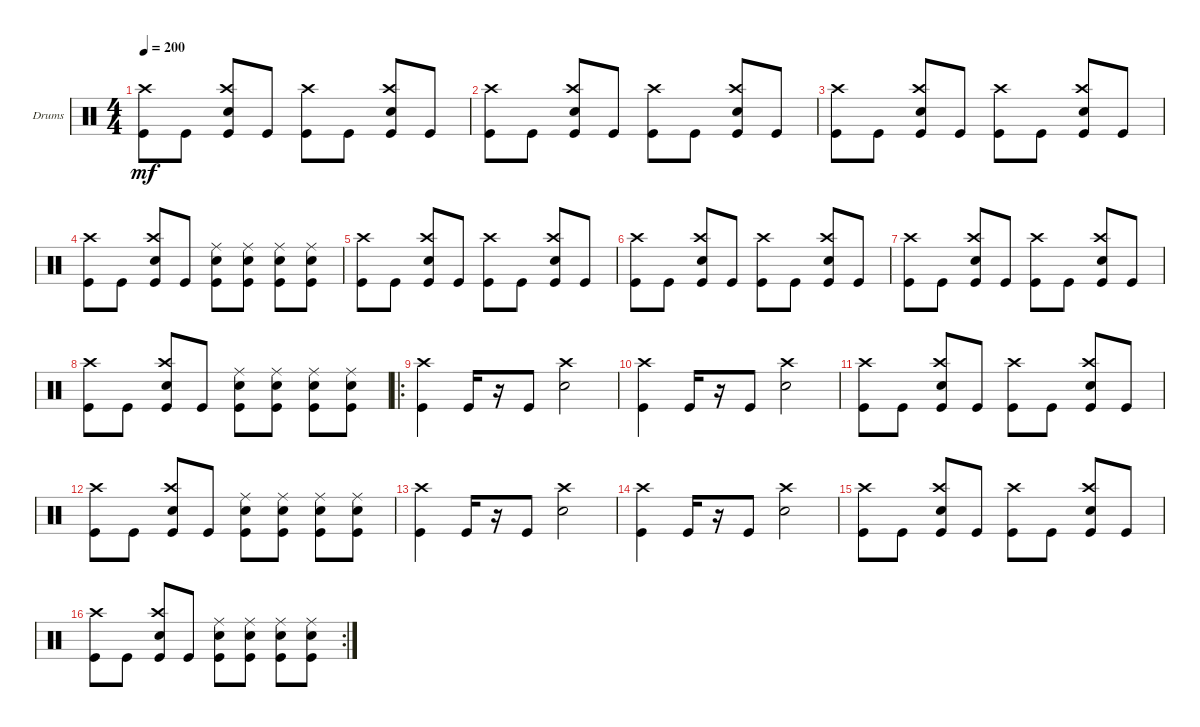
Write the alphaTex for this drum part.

\bracketExtendMode groupsimilarinstruments
\firstSystemTrackNameOrientation horizontal
\otherSystemsTrackNameOrientation horizontal
\track ("Drumkit" "Drums") {instrument percussion}
\staff {score}
\articulation defaults
\ts (4 4)
\tempo 200
\clef neutral
\ks c
("Kick (hit)" "Crash high (hit)").8{dy mf} "Kick (hit)".8 ("Kick (hit)" "Snare (hit) 2" "Crash high (hit)").8 "Kick (hit)".8 ("Kick (hit)" "Crash high (hit)").8 "Kick (hit)".8 ("Kick (hit)" "Snare (hit) 2" "Crash high (hit)").8 "Kick (hit)".8 |
("Kick (hit)" "Crash high (hit)").8 "Kick (hit)".8 ("Kick (hit)" "Snare (hit) 2" "Crash high (hit)").8 "Kick (hit)".8 ("Kick (hit)" "Crash high (hit)").8 "Kick (hit)".8 ("Kick (hit)" "Snare (hit) 2" "Crash high (hit)").8 "Kick (hit)".8 |
("Kick (hit)" "Crash high (hit)").8 "Kick (hit)".8 ("Kick (hit)" "Snare (hit) 2" "Crash high (hit)").8 "Kick (hit)".8 ("Kick (hit)" "Crash high (hit)").8 "Kick (hit)".8 ("Kick (hit)" "Snare (hit) 2" "Crash high (hit)").8 "Kick (hit)".8 |
("Kick (hit)" "Crash high (hit)").8 "Kick (hit)".8 ("Kick (hit)" "Snare (hit) 2" "Crash high (hit)").8 "Kick (hit)".8 ("Kick (hit)" "Snare (hit) 2" "Ride (middle)").8 ("Kick (hit)" "Snare (hit) 2" "Ride (middle)").8 ("Kick (hit)" "Snare (hit) 2" "Ride (middle)").8 ("Kick (hit)" "Snare (hit) 2" "Ride (middle)").8 |
("Kick (hit)" "Crash high (hit)").8 "Kick (hit)".8 ("Kick (hit)" "Snare (hit) 2" "Crash high (hit)").8 "Kick (hit)".8 ("Kick (hit)" "Crash high (hit)").8 "Kick (hit)".8 ("Kick (hit)" "Snare (hit) 2" "Crash high (hit)").8 "Kick (hit)".8 |
("Kick (hit)" "Crash high (hit)").8 "Kick (hit)".8 ("Kick (hit)" "Snare (hit) 2" "Crash high (hit)").8 "Kick (hit)".8 ("Kick (hit)" "Crash high (hit)").8 "Kick (hit)".8 ("Kick (hit)" "Snare (hit) 2" "Crash high (hit)").8 "Kick (hit)".8 |
("Kick (hit)" "Crash high (hit)").8 "Kick (hit)".8 ("Kick (hit)" "Snare (hit) 2" "Crash high (hit)").8 "Kick (hit)".8 ("Kick (hit)" "Crash high (hit)").8 "Kick (hit)".8 ("Kick (hit)" "Snare (hit) 2" "Crash high (hit)").8 "Kick (hit)".8 |
("Kick (hit)" "Crash high (hit)").8 "Kick (hit)".8 ("Kick (hit)" "Snare (hit) 2" "Crash high (hit)").8 "Kick (hit)".8 ("Kick (hit)" "Snare (hit) 2" "Ride (middle)").8 ("Kick (hit)" "Snare (hit) 2" "Ride (middle)").8 ("Kick (hit)" "Snare (hit) 2" "Ride (middle)").8 ("Kick (hit)" "Snare (hit) 2" "Ride (middle)").8 |
\ro
("Kick (hit)" "Crash high (hit)").4 "Kick (hit)".16 r.16 "Kick (hit)".8 ("Snare (hit) 2" "Crash high (hit)").2 |
("Kick (hit)" "Crash high (hit)").4 "Kick (hit)".16 r.16 "Kick (hit)".8 ("Snare (hit) 2" "Crash high (hit)").2 |
("Kick (hit)" "Crash high (hit)").8 "Kick (hit)".8 ("Kick (hit)" "Snare (hit) 2" "Crash high (hit)").8 "Kick (hit)".8 ("Kick (hit)" "Crash high (hit)").8 "Kick (hit)".8 ("Kick (hit)" "Snare (hit) 2" "Crash high (hit)").8 "Kick (hit)".8 |
("Kick (hit)" "Crash high (hit)").8 "Kick (hit)".8 ("Kick (hit)" "Snare (hit) 2" "Crash high (hit)").8 "Kick (hit)".8 ("Kick (hit)" "Snare (hit) 2" "Ride (middle)").8 ("Kick (hit)" "Snare (hit) 2" "Ride (middle)").8 ("Kick (hit)" "Snare (hit) 2" "Ride (middle)").8 ("Kick (hit)" "Snare (hit) 2" "Ride (middle)").8 |
("Kick (hit)" "Crash high (hit)").4 "Kick (hit)".16 r.16 "Kick (hit)".8 ("Snare (hit) 2" "Crash high (hit)").2 |
("Kick (hit)" "Crash high (hit)").4 "Kick (hit)".16 r.16 "Kick (hit)".8 ("Snare (hit) 2" "Crash high (hit)").2 |
("Kick (hit)" "Crash high (hit)").8 "Kick (hit)".8 ("Kick (hit)" "Snare (hit) 2" "Crash high (hit)").8 "Kick (hit)".8 ("Kick (hit)" "Crash high (hit)").8 "Kick (hit)".8 ("Kick (hit)" "Snare (hit) 2" "Crash high (hit)").8 "Kick (hit)".8 |
\rc 2
("Kick (hit)" "Crash high (hit)").8 "Kick (hit)".8 ("Kick (hit)" "Snare (hit) 2" "Crash high (hit)").8 "Kick (hit)".8 ("Kick (hit)" "Snare (hit) 2" "Ride (middle)").8 ("Kick (hit)" "Snare (hit) 2" "Ride (middle)").8 ("Kick (hit)" "Snare (hit) 2" "Ride (middle)").8 ("Kick (hit)" "Snare (hit) 2" "Ride (middle)").8
